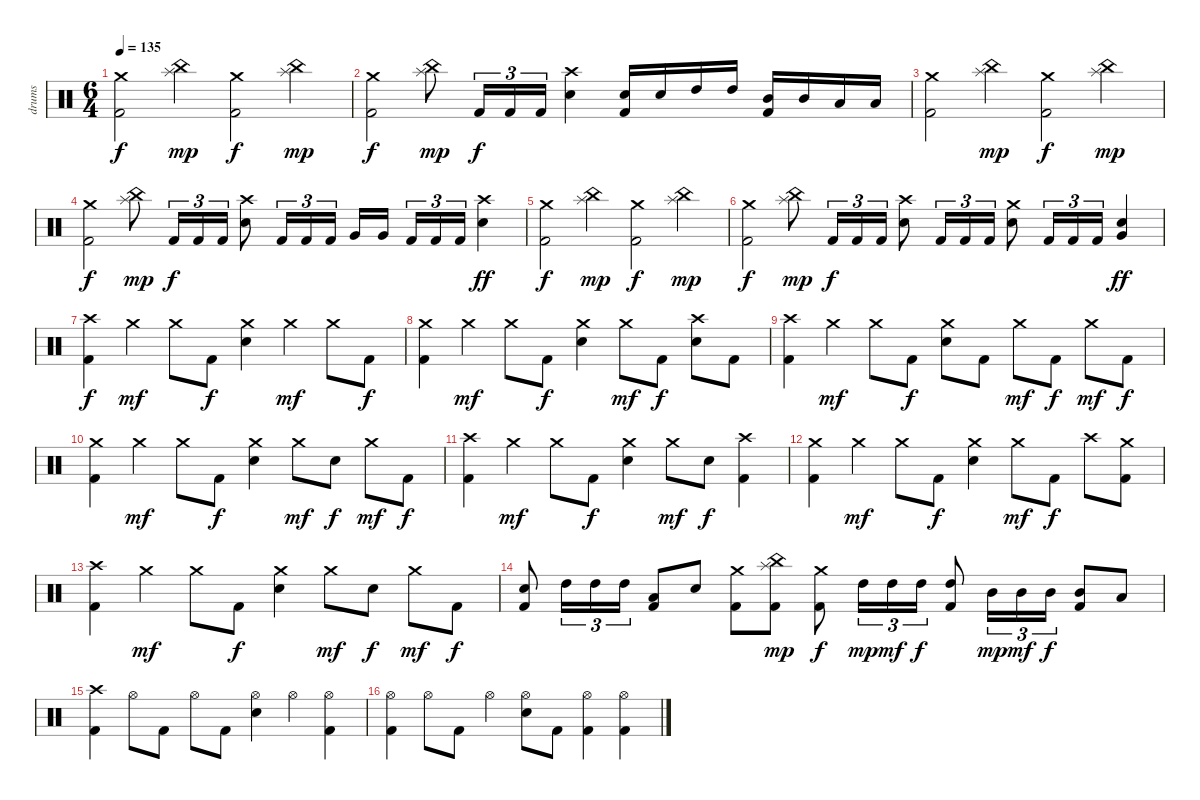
\track ("drums" "drums") {instrument percussion}
\staff {score}
\articulation defaults
\ts (6 4)
\tempo 135
\clef neutral
\ks c
("Crash medium (hit)" "Kick (hit) 2").2{dy f} ("Splash (hit)" "China (hit)").4{dy mp} ("Crash medium (hit)" "Kick (hit) 2").2{dy f} ("Splash (hit)" "China (hit)").4{dy mp} |
("Crash medium (hit)" "Kick (hit) 2").2{dy f} ("Splash (hit)" "China (hit)").8{dy mp} "Kick (hit) 2".16{tu (3 2) dy f} "Kick (hit) 2".16{tu (3 2)} "Kick (hit) 2".16{tu (3 2)} ("Crash high (hit)" "Electric Snare (hit)").4 ("Electric Snare (hit)" "Kick (hit) 2").16 "Electric Snare (hit)".16 "High Tom (hit)".16 "High Tom (hit)".16 ("Mid Tom (hit)" "Kick (hit) 2").16 "Mid Tom (hit)".16 "Low Tom (hit)".16 "Low Tom (hit)".16 |
("Crash medium (hit)" "Kick (hit) 2").2 ("Splash (hit)" "China (hit)").4{dy mp} ("Crash medium (hit)" "Kick (hit) 2").2{dy f} ("Splash (hit)" "China (hit)").4{dy mp} |
("Crash medium (hit)" "Kick (hit) 2").2{dy f} ("Splash (hit)" "China (hit)").8{dy mp} "Kick (hit) 2".16{tu (3 2) dy f} "Kick (hit) 2".16{tu (3 2)} "Kick (hit) 2".16{tu (3 2)} ("Crash high (hit)" "Electric Snare (hit)").8 "Kick (hit) 2".16{tu (3 2)} "Kick (hit) 2".16{tu (3 2)} "Kick (hit) 2".16{tu (3 2)} "Very Low Tom (hit)".16 "Very Low Tom (hit)".16 "Kick (hit) 2".16{tu (3 2)} "Kick (hit) 2".16{tu (3 2)} "Kick (hit) 2".16{tu (3 2)} ("Crash high (hit)" "Electric Snare (hit)").4{dy ff} |
("Crash medium (hit)" "Kick (hit) 2").2{dy f} ("Splash (hit)" "China (hit)").4{dy mp} ("Crash medium (hit)" "Kick (hit) 2").2{dy f} ("Splash (hit)" "China (hit)").4{dy mp} |
("Crash medium (hit)" "Kick (hit) 2").2{dy f} ("Splash (hit)" "China (hit)").8{dy mp} "Kick (hit) 2".16{tu (3 2) dy f} "Kick (hit) 2".16{tu (3 2)} "Kick (hit) 2".16{tu (3 2)} ("Crash high (hit)" "Electric Snare (hit)").8 "Kick (hit) 2".16{tu (3 2)} "Kick (hit) 2".16{tu (3 2)} "Kick (hit) 2".16{tu (3 2)} ("Crash medium (hit)" "Electric Snare (hit)").8 "Kick (hit) 2".16{tu (3 2)} "Kick (hit) 2".16{tu (3 2)} "Kick (hit) 2".16{tu (3 2)} ("Very Low Tom (hit)" "Electric Snare (hit)").4{dy ff} |
("Crash high (hit)" "Kick (hit) 2").4{dy f} "Crash medium (hit)".4{dy mf} "Crash medium (hit)".8 "Kick (hit) 2".8{dy f} ("Crash medium (hit)" "Electric Snare (hit)").4 "Crash medium (hit)".4{dy mf} "Crash medium (hit)".8 "Kick (hit) 2".8{dy f} |
("Crash medium (hit)" "Kick (hit) 2").4 "Crash medium (hit)".4{dy mf} "Crash medium (hit)".8 "Kick (hit) 2".8{dy f} ("Crash medium (hit)" "Electric Snare (hit)").4 "Crash medium (hit)".8{dy mf} "Kick (hit) 2".8{dy f} ("Crash high (hit)" "Electric Snare (hit)").8 "Kick (hit) 2".8 |
("Crash high (hit)" "Kick (hit) 2").4 "Crash medium (hit)".4{dy mf} "Crash medium (hit)".8 "Kick (hit) 2".8{dy f} ("Crash medium (hit)" "Electric Snare (hit)").8 "Kick (hit) 2".8 "Crash medium (hit)".8{dy mf} "Kick (hit) 2".8{dy f} "Crash medium (hit)".8{dy mf} "Kick (hit) 2".8{dy f} |
("Crash medium (hit)" "Kick (hit) 2").4 "Crash medium (hit)".4{dy mf} "Crash medium (hit)".8 "Kick (hit) 2".8{dy f} ("Crash medium (hit)" "Electric Snare (hit)").4 "Crash medium (hit)".8{dy mf} "Electric Snare (hit)".8{dy f} "Crash medium (hit)".8{dy mf} "Kick (hit) 2".8{dy f} |
("Crash high (hit)" "Kick (hit) 2").4 "Crash medium (hit)".4{dy mf} "Crash medium (hit)".8 "Kick (hit) 2".8{dy f} ("Crash medium (hit)" "Electric Snare (hit)").4 "Crash medium (hit)".8{dy mf} "Electric Snare (hit)".8{dy f} ("Crash high (hit)" "Kick (hit) 2").4 |
("Crash medium (hit)" "Kick (hit) 2").4 "Crash medium (hit)".4{dy mf} "Crash medium (hit)".8 "Kick (hit) 2".8{dy f} ("Crash medium (hit)" "Electric Snare (hit)").4 "Crash medium (hit)".8{dy mf} "Kick (hit) 2".8{dy f} "Crash high (hit)".8 ("Crash medium (hit)" "Kick (hit) 2").8 |
("Crash high (hit)" "Kick (hit) 2").4 "Crash medium (hit)".4{dy mf} "Crash medium (hit)".8 "Kick (hit) 2".8{dy f} ("Crash medium (hit)" "Electric Snare (hit)").4 "Crash medium (hit)".8{dy mf} "Electric Snare (hit)".8{dy f} "Crash medium (hit)".8{dy mf} "Kick (hit) 2".8{dy f} |
("Electric Snare (hit)" "Kick (hit) 2").8 "High Tom (hit)".16{tu (3 2)} "High Tom (hit)".16{tu (3 2)} "High Tom (hit)".16{tu (3 2)} ("Low Tom (hit)" "Kick (hit) 2").8 "Electric Snare (hit)".8 ("Crash medium (hit)" "Kick (hit) 2").8 ("Splash (hit)" "China (hit)" "Kick (hit) 2").8{dy mp} ("Crash medium (hit)" "Kick (hit) 2").8{dy f} "High Tom (hit)".16{tu (3 2) dy mp} "High Tom (hit)".16{tu (3 2) dy mf} "High Tom (hit)".16{tu (3 2) dy f} ("High Tom (hit)" "Kick (hit) 2").8 "Mid Tom (hit)".16{tu (3 2) dy mp} "Mid Tom (hit)".16{tu (3 2) dy mf} "Mid Tom (hit)".16{tu (3 2) dy f} ("Mid Tom (hit)" "Kick (hit) 2").8 "Low Tom (hit)".8 |
("Crash high (hit)" "Kick (hit) 2").4 "Hi-Hat (open)".8 "Kick (hit) 2".8 "Hi-Hat (open)".8 "Kick (hit) 2".8 ("Hi-Hat (open)" "Electric Snare (hit)").4 "Hi-Hat (open)".4 ("Hi-Hat (open)" "Kick (hit) 2").4 |
("Hi-Hat (open)" "Kick (hit) 2").4 "Hi-Hat (open)".8 "Kick (hit) 2".8 "Hi-Hat (open)".4 ("Hi-Hat (open)" "Electric Snare (hit)").8 "Kick (hit) 2".8 ("Hi-Hat (open)" "Kick (hit) 2").4 ("Hi-Hat (open)" "Kick (hit) 2").4
